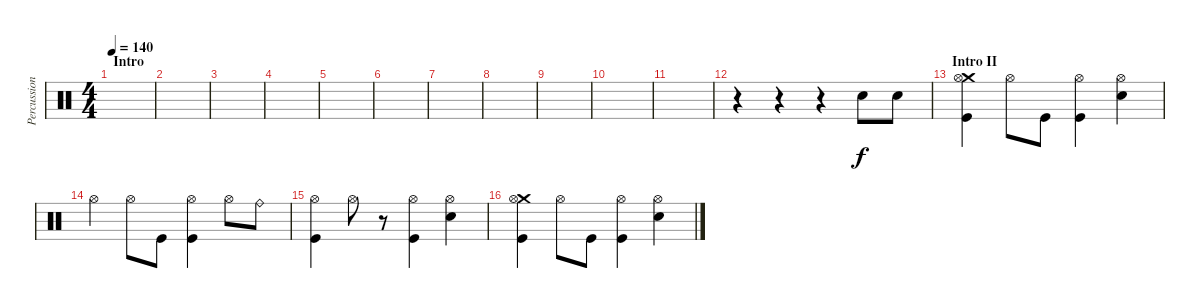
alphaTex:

\track ("Percussion" "Percussion") {instrument percussion}
\staff {score}
\articulation defaults
\ts (4 4)
\section ("" "Intro")
\tempo 140
\clef neutral
\ks c
|
|
|
|
|
|
|
|
|
|
|
r.4 r.4 r.4 "Electric Snare (hit)".8 "Electric Snare (hit)".8 |
\section ("" "Intro II")
("Crash medium (hit)" "Hi-Hat (open)" "Kick (hit)").4 "Hi-Hat (open)".8 "Kick (hit)".8 ("Hi-Hat (open)" "Kick (hit)").4 ("Hi-Hat (open)" "Electric Snare (hit)").4 |
"Hi-Hat (open)".4 "Hi-Hat (open)".8 "Kick (hit)".8 ("Hi-Hat (open)" "Kick (hit)").4 "Hi-Hat (open)".8 "Ride (bell)".8 |
("Hi-Hat (open)" "Kick (hit)").4 "Hi-Hat (open)".8 r.8 ("Hi-Hat (open)" "Kick (hit)").4 ("Hi-Hat (open)" "Electric Snare (hit)").4 |
("Crash medium (hit)" "Hi-Hat (open)" "Kick (hit)").4 "Hi-Hat (open)".8 "Kick (hit)".8 ("Hi-Hat (open)" "Kick (hit)").4 ("Hi-Hat (open)" "Electric Snare (hit)").4
